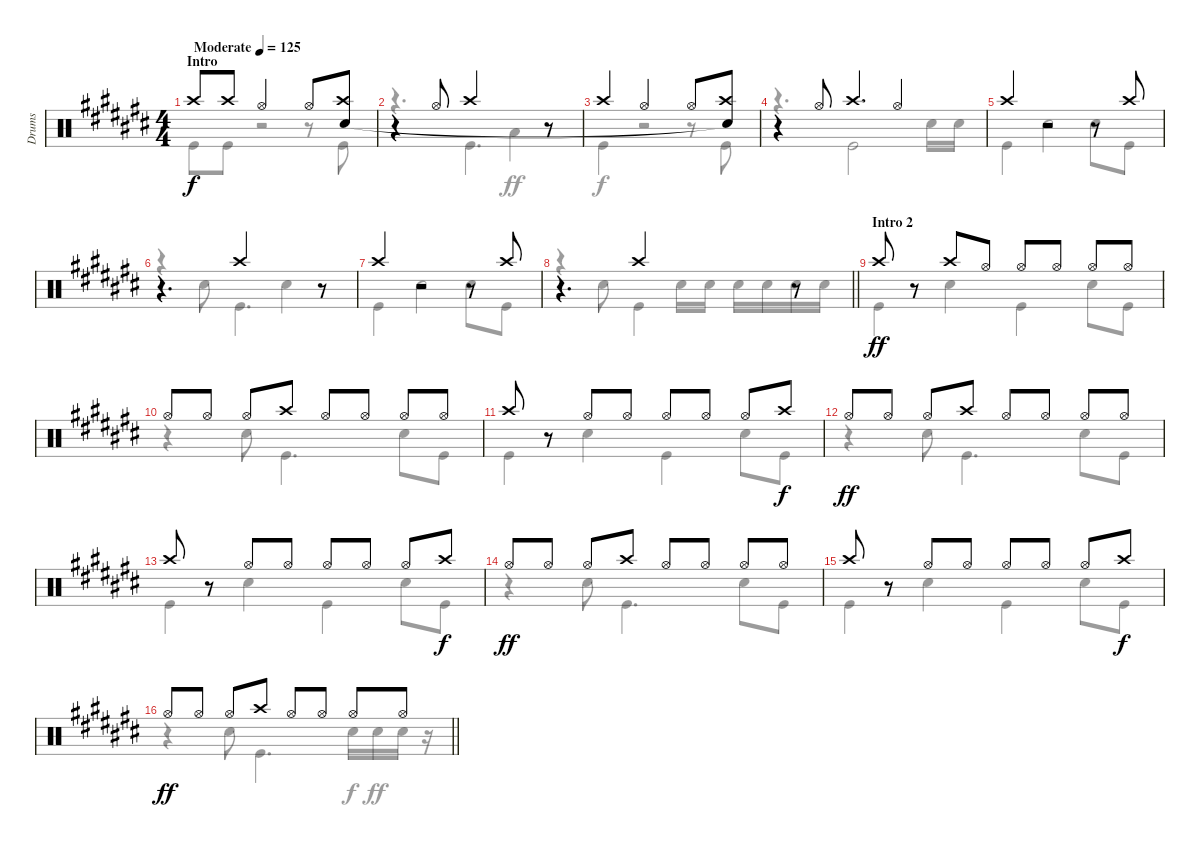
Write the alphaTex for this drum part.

\track ("Drums" "Drums") {instrument percussion}
\staff {score}
\articulation defaults
\voice
\ts (4 4)
\section ("" "Intro")
\tempo (125 "Moderate")
\clef neutral
\ks c# "Crash high (hit)".8{dy f} "Crash high (hit)".8 "Hi-Hat (open)".2 "Hi-Hat (open)".8
("Crash high (hit)" "Snare (hit)").8 |
r.4 "Hi-Hat (open)".8 "Crash high (hit)".2 r.8 |
"Crash high (hit)".4 "Hi-Hat (open)".2 "Hi-Hat (open)".8 ("Crash high (hit)" "Snare (hit)"{t}).8 |
r.4 "Hi-Hat (open)".8 "Crash high (hit)".4{d} "Hi-Hat (open)".4 |
"Crash high (hit)".4 r.2 r.8 "Crash high (hit)".8 |
r.4{d} "Crash high (hit)".2 r.8 |
"Crash high (hit)".4 r.2 r.8 "Crash high (hit)".8 |
\barLineRight lightlight
r.4{d} "Crash high (hit)".2 r.8 |
\section ("" "Intro 2")
"Crash high (hit)".8{dy ff} r.8 "Crash high (hit)".8 "Hi-Hat (open)".8 "Hi-Hat (open)".8 "Hi-Hat (open)".8 "Hi-Hat (open)".8 "Hi-Hat (open)".8 |
"Hi-Hat (open)".8 "Hi-Hat (open)".8 "Hi-Hat (open)".8 "Crash high (hit)".8 "Hi-Hat (open)".8 "Hi-Hat (open)".8 "Hi-Hat (open)".8 "Hi-Hat (open)".8 |
"Crash high (hit)".8 r.8 "Hi-Hat (open)".8 "Hi-Hat (open)".8 "Hi-Hat (open)".8 "Hi-Hat (open)".8 "Hi-Hat (open)".8 "Crash high (hit)".8{dy f} |
"Hi-Hat (open)".8{dy ff} "Hi-Hat (open)".8 "Hi-Hat (open)".8 "Crash high (hit)".8 "Hi-Hat (open)".8 "Hi-Hat (open)".8 "Hi-Hat (open)".8 "Hi-Hat (open)".8 |
"Crash high (hit)".8 r.8 "Hi-Hat (open)".8 "Hi-Hat (open)".8 "Hi-Hat (open)".8 "Hi-Hat (open)".8 "Hi-Hat (open)".8 "Crash high (hit)".8{dy f} |
"Hi-Hat (open)".8{dy ff} "Hi-Hat (open)".8 "Hi-Hat (open)".8 "Crash high (hit)".8 "Hi-Hat (open)".8 "Hi-Hat (open)".8 "Hi-Hat (open)".8 "Hi-Hat (open)".8 |
"Crash high (hit)".8 r.8 "Hi-Hat (open)".8 "Hi-Hat (open)".8 "Hi-Hat (open)".8 "Hi-Hat (open)".8 "Hi-Hat (open)".8 "Crash high (hit)".8{dy f} |
\barLineRight lightlight "Hi-Hat (open)".8{dy ff} "Hi-Hat (open)".8 "Hi-Hat (open)".8 "Crash high (hit)".8 "Hi-Hat (open)".8 "Hi-Hat (open)".8 "Hi-Hat (open)".8 "Hi-Hat (open)".8
\voice
\clef neutral
\ottava regular
\simile none
\ks c# "Kick (hit)".8{dy f} "Kick (hit)".8
r.2 r.8 "Kick (hit)".8 |
r.4{d} "Kick (hit)".4{d} "Low Floor Tom (hit)".4{dy ff} |
"Kick (hit)".4{dy f} r.2 r.8 "Kick (hit)".8 |
r.4{d} "Kick (hit)".2 "Snare (hit) 2".16 "Snare (hit) 2".16 |
"Kick (hit)".4 "Snare (hit) 2".2 "Snare (hit) 2".8 "Kick (hit)".8 |
r.4 "Snare (hit) 2".8 "Kick (hit)".4{d} "Snare (hit) 2".4 |
"Kick (hit)".4 "Snare (hit) 2".2 "Snare (hit) 2".8 "Kick (hit)".8 |
\barLineRight lightlight
r.4 "Snare (hit) 2".8 "Kick (hit)".4 "Snare (hit) 2".16 "Snare (hit) 2".16 "Snare (hit) 2".16 "Snare (hit) 2".16 "Snare (hit) 2".16 "Snare (hit) 2".16 |
"Kick (hit)".4{dy ff} "Snare (hit) 2".4 "Kick (hit)".4 "Snare (hit) 2".8 "Kick (hit)".8 |
r.4 "Snare (hit) 2".8 "Kick (hit)".4{d} "Snare (hit) 2".8 "Kick (hit)".8 |
"Kick (hit)".4 "Snare (hit) 2".4 "Kick (hit)".4 "Snare (hit) 2".8 "Kick (hit)".8 |
r.4 "Snare (hit) 2".8 "Kick (hit)".4{d} "Snare (hit) 2".8 "Kick (hit)".8 |
"Kick (hit)".4 "Snare (hit) 2".4 "Kick (hit)".4 "Snare (hit) 2".8 "Kick (hit)".8 |
r.4 "Snare (hit) 2".8 "Kick (hit)".4{d} "Snare (hit) 2".8 "Kick (hit)".8 |
"Kick (hit)".4 "Snare (hit) 2".4 "Kick (hit)".4 "Snare (hit) 2".8 "Kick (hit)".8 |
\barLineRight lightlight
r.4 "Snare (hit) 2".8 "Kick (hit)".4{d} "Snare (hit) 2".16{dy f} "Snare (hit) 2".16{dy ff} "Snare (hit) 2".16 r.16
